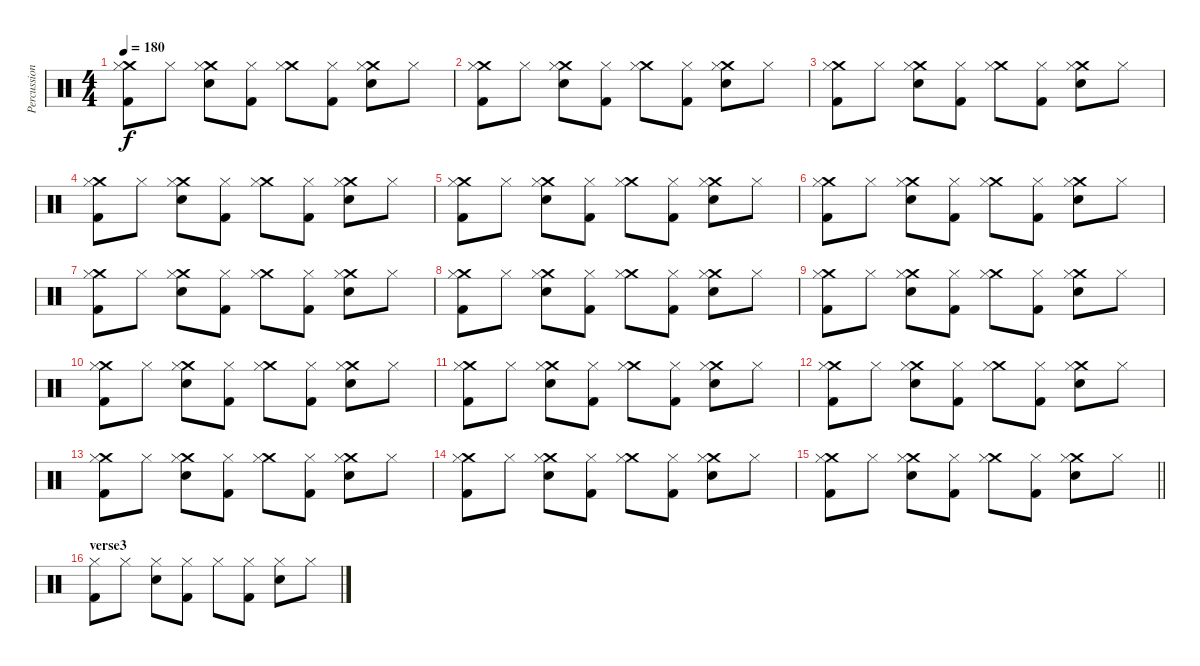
\track ("Percussion" "Percussion") {instrument percussion}
\staff {score}
\articulation defaults
\ts (4 4)
\tempo 180
\clef neutral
\ks c
("Crash medium (hit)" "Hi-Hat (closed)" "Kick (hit) 2").8{dy f} "Hi-Hat (closed)".8 ("Crash medium (hit)" "Hi-Hat (closed)" "Snare (hit) 2").8 ("Hi-Hat (closed)" "Kick (hit) 2").8 ("Crash medium (hit)" "Hi-Hat (closed)").8 ("Hi-Hat (closed)" "Kick (hit) 2").8 ("Crash medium (hit)" "Hi-Hat (closed)" "Snare (hit) 2").8 "Hi-Hat (closed)".8 |
("Crash medium (hit)" "Hi-Hat (closed)" "Kick (hit) 2").8 "Hi-Hat (closed)".8 ("Crash medium (hit)" "Hi-Hat (closed)" "Snare (hit) 2").8 ("Hi-Hat (closed)" "Kick (hit) 2").8 ("Crash medium (hit)" "Hi-Hat (closed)").8 ("Hi-Hat (closed)" "Kick (hit) 2").8 ("Crash medium (hit)" "Hi-Hat (closed)" "Snare (hit) 2").8 "Hi-Hat (closed)".8 |
("Crash medium (hit)" "Hi-Hat (closed)" "Kick (hit) 2").8 "Hi-Hat (closed)".8 ("Crash medium (hit)" "Hi-Hat (closed)" "Snare (hit) 2").8 ("Hi-Hat (closed)" "Kick (hit) 2").8 ("Crash medium (hit)" "Hi-Hat (closed)").8 ("Hi-Hat (closed)" "Kick (hit) 2").8 ("Crash medium (hit)" "Hi-Hat (closed)" "Snare (hit) 2").8 "Hi-Hat (closed)".8 |
("Crash medium (hit)" "Hi-Hat (closed)" "Kick (hit) 2").8 "Hi-Hat (closed)".8 ("Crash medium (hit)" "Hi-Hat (closed)" "Snare (hit) 2").8 ("Hi-Hat (closed)" "Kick (hit) 2").8 ("Crash medium (hit)" "Hi-Hat (closed)").8 ("Hi-Hat (closed)" "Kick (hit) 2").8 ("Crash medium (hit)" "Hi-Hat (closed)" "Snare (hit) 2").8 "Hi-Hat (closed)".8 |
("Crash medium (hit)" "Hi-Hat (closed)" "Kick (hit) 2").8 "Hi-Hat (closed)".8 ("Crash medium (hit)" "Hi-Hat (closed)" "Snare (hit) 2").8 ("Hi-Hat (closed)" "Kick (hit) 2").8 ("Crash medium (hit)" "Hi-Hat (closed)").8 ("Hi-Hat (closed)" "Kick (hit) 2").8 ("Crash medium (hit)" "Hi-Hat (closed)" "Snare (hit) 2").8 "Hi-Hat (closed)".8 |
("Crash medium (hit)" "Hi-Hat (closed)" "Kick (hit) 2").8 "Hi-Hat (closed)".8 ("Crash medium (hit)" "Hi-Hat (closed)" "Snare (hit) 2").8 ("Hi-Hat (closed)" "Kick (hit) 2").8 ("Crash medium (hit)" "Hi-Hat (closed)").8 ("Hi-Hat (closed)" "Kick (hit) 2").8 ("Crash medium (hit)" "Hi-Hat (closed)" "Snare (hit) 2").8 "Hi-Hat (closed)".8 |
("Crash medium (hit)" "Hi-Hat (closed)" "Kick (hit) 2").8 "Hi-Hat (closed)".8 ("Crash medium (hit)" "Hi-Hat (closed)" "Snare (hit) 2").8 ("Hi-Hat (closed)" "Kick (hit) 2").8 ("Crash medium (hit)" "Hi-Hat (closed)").8 ("Hi-Hat (closed)" "Kick (hit) 2").8 ("Crash medium (hit)" "Hi-Hat (closed)" "Snare (hit) 2").8 "Hi-Hat (closed)".8 |
("Crash medium (hit)" "Hi-Hat (closed)" "Kick (hit) 2").8 "Hi-Hat (closed)".8 ("Crash medium (hit)" "Hi-Hat (closed)" "Snare (hit) 2").8 ("Hi-Hat (closed)" "Kick (hit) 2").8 ("Crash medium (hit)" "Hi-Hat (closed)").8 ("Hi-Hat (closed)" "Kick (hit) 2").8 ("Crash medium (hit)" "Hi-Hat (closed)" "Snare (hit) 2").8 "Hi-Hat (closed)".8 |
("Crash medium (hit)" "Hi-Hat (closed)" "Kick (hit) 2").8 "Hi-Hat (closed)".8 ("Crash medium (hit)" "Hi-Hat (closed)" "Snare (hit) 2").8 ("Hi-Hat (closed)" "Kick (hit) 2").8 ("Crash medium (hit)" "Hi-Hat (closed)").8 ("Hi-Hat (closed)" "Kick (hit) 2").8 ("Crash medium (hit)" "Hi-Hat (closed)" "Snare (hit) 2").8 "Hi-Hat (closed)".8 |
("Crash medium (hit)" "Hi-Hat (closed)" "Kick (hit) 2").8 "Hi-Hat (closed)".8 ("Crash medium (hit)" "Hi-Hat (closed)" "Snare (hit) 2").8 ("Hi-Hat (closed)" "Kick (hit) 2").8 ("Crash medium (hit)" "Hi-Hat (closed)").8 ("Hi-Hat (closed)" "Kick (hit) 2").8 ("Crash medium (hit)" "Hi-Hat (closed)" "Snare (hit) 2").8 "Hi-Hat (closed)".8 |
("Crash medium (hit)" "Hi-Hat (closed)" "Kick (hit) 2").8 "Hi-Hat (closed)".8 ("Crash medium (hit)" "Hi-Hat (closed)" "Snare (hit) 2").8 ("Hi-Hat (closed)" "Kick (hit) 2").8 ("Crash medium (hit)" "Hi-Hat (closed)").8 ("Hi-Hat (closed)" "Kick (hit) 2").8 ("Crash medium (hit)" "Hi-Hat (closed)" "Snare (hit) 2").8 "Hi-Hat (closed)".8 |
("Crash medium (hit)" "Hi-Hat (closed)" "Kick (hit) 2").8 "Hi-Hat (closed)".8 ("Crash medium (hit)" "Hi-Hat (closed)" "Snare (hit) 2").8 ("Hi-Hat (closed)" "Kick (hit) 2").8 ("Crash medium (hit)" "Hi-Hat (closed)").8 ("Hi-Hat (closed)" "Kick (hit) 2").8 ("Crash medium (hit)" "Hi-Hat (closed)" "Snare (hit) 2").8 "Hi-Hat (closed)".8 |
("Crash medium (hit)" "Hi-Hat (closed)" "Kick (hit) 2").8 "Hi-Hat (closed)".8 ("Crash medium (hit)" "Hi-Hat (closed)" "Snare (hit) 2").8 ("Hi-Hat (closed)" "Kick (hit) 2").8 ("Crash medium (hit)" "Hi-Hat (closed)").8 ("Hi-Hat (closed)" "Kick (hit) 2").8 ("Crash medium (hit)" "Hi-Hat (closed)" "Snare (hit) 2").8 "Hi-Hat (closed)".8 |
("Crash medium (hit)" "Hi-Hat (closed)" "Kick (hit) 2").8 "Hi-Hat (closed)".8 ("Crash medium (hit)" "Hi-Hat (closed)" "Snare (hit) 2").8 ("Hi-Hat (closed)" "Kick (hit) 2").8 ("Crash medium (hit)" "Hi-Hat (closed)").8 ("Hi-Hat (closed)" "Kick (hit) 2").8 ("Crash medium (hit)" "Hi-Hat (closed)" "Snare (hit) 2").8 "Hi-Hat (closed)".8 |
\barLineRight lightlight
("Crash medium (hit)" "Hi-Hat (closed)" "Kick (hit) 2").8 "Hi-Hat (closed)".8 ("Crash medium (hit)" "Hi-Hat (closed)" "Snare (hit) 2").8 ("Hi-Hat (closed)" "Kick (hit) 2").8 ("Crash medium (hit)" "Hi-Hat (closed)").8 ("Hi-Hat (closed)" "Kick (hit) 2").8 ("Crash medium (hit)" "Hi-Hat (closed)" "Snare (hit) 2").8 "Hi-Hat (closed)".8 |
\section ("" "verse3")
("Hi-Hat (closed)" "Kick (hit) 2").8 "Hi-Hat (closed)".8 ("Hi-Hat (closed)" "Snare (hit) 2").8 ("Hi-Hat (closed)" "Kick (hit) 2").8 "Hi-Hat (closed)".8 ("Hi-Hat (closed)" "Kick (hit) 2").8 ("Hi-Hat (closed)" "Snare (hit) 2").8 "Hi-Hat (closed)".8
